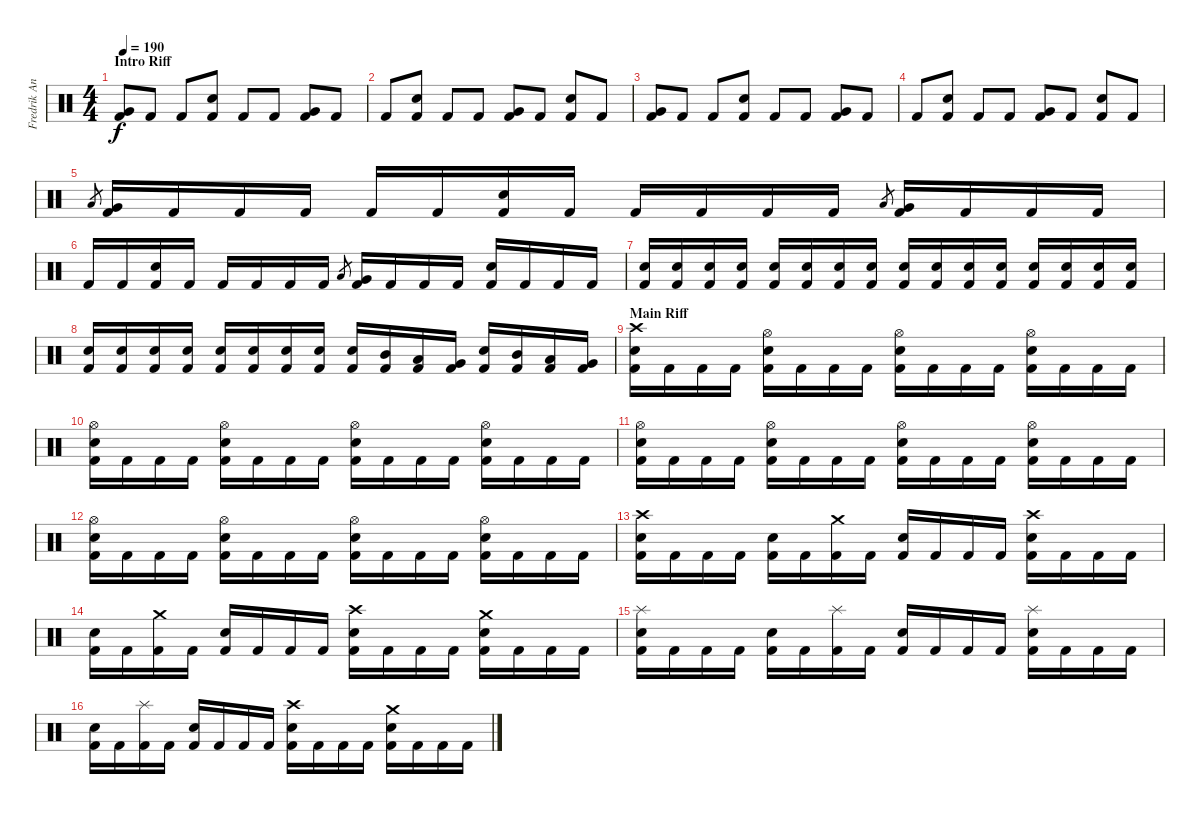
\track ("Fredrik Andersson" "Fredrik An") {instrument percussion}
\staff {score}
\articulation defaults
\ts (4 4)
\section ("" "Intro Riff")
\tempo 190
\clef neutral
\ks c
("Very Low Tom (hit)" "Kick (hit) 2").8{dy f} "Kick (hit) 2".8 "Kick (hit) 2".8 ("Electric Snare (hit)" "Kick (hit) 2").8 "Kick (hit) 2".8 "Kick (hit) 2".8 ("Very Low Tom (hit)" "Kick (hit) 2").8 "Kick (hit) 2".8 |
"Kick (hit) 2".8 ("Electric Snare (hit)" "Kick (hit) 2").8 "Kick (hit) 2".8 "Kick (hit) 2".8 ("Very Low Tom (hit)" "Kick (hit) 2").8 "Kick (hit) 2".8 ("Electric Snare (hit)" "Kick (hit) 2").8 "Kick (hit) 2".8 |
("Very Low Tom (hit)" "Kick (hit) 2").8 "Kick (hit) 2".8 "Kick (hit) 2".8 ("Electric Snare (hit)" "Kick (hit) 2").8 "Kick (hit) 2".8 "Kick (hit) 2".8 ("Very Low Tom (hit)" "Kick (hit) 2").8 "Kick (hit) 2".8 |
"Kick (hit) 2".8 ("Electric Snare (hit)" "Kick (hit) 2").8 "Kick (hit) 2".8 "Kick (hit) 2".8 ("Very Low Tom (hit)" "Kick (hit) 2").8 "Kick (hit) 2".8 ("Electric Snare (hit)" "Kick (hit) 2").8 "Kick (hit) 2".8 |
"Low Tom (hit)".8{gr} ("Very Low Tom (hit)" "Kick (hit) 2").16 "Kick (hit) 2".16 "Kick (hit) 2".16 "Kick (hit) 2".16 "Kick (hit) 2".16 "Kick (hit) 2".16 ("Electric Snare (hit)" "Kick (hit) 2").16 "Kick (hit) 2".16 "Kick (hit) 2".16 "Kick (hit) 2".16 "Kick (hit) 2".16 "Kick (hit) 2".16 "Low Tom (hit)".8{gr} ("Very Low Tom (hit)" "Kick (hit) 2").16 "Kick (hit) 2".16 "Kick (hit) 2".16 "Kick (hit) 2".16 |
"Kick (hit) 2".16 "Kick (hit) 2".16 ("Electric Snare (hit)" "Kick (hit) 2").16 "Kick (hit) 2".16 "Kick (hit) 2".16 "Kick (hit) 2".16 "Kick (hit) 2".16 "Kick (hit) 2".16 "Low Tom (hit)".8{gr} ("Very Low Tom (hit)" "Kick (hit) 2").16 "Kick (hit) 2".16 "Kick (hit) 2".16 "Kick (hit) 2".16 ("Electric Snare (hit)" "Kick (hit) 2").16 "Kick (hit) 2".16 "Kick (hit) 2".16 "Kick (hit) 2".16 |
("Electric Snare (hit)" "Kick (hit) 2").16 ("Electric Snare (hit)" "Kick (hit) 2").16 ("Electric Snare (hit)" "Kick (hit) 2").16 ("Electric Snare (hit)" "Kick (hit) 2").16 ("Electric Snare (hit)" "Kick (hit) 2").16 ("Electric Snare (hit)" "Kick (hit) 2").16 ("Electric Snare (hit)" "Kick (hit) 2").16 ("Electric Snare (hit)" "Kick (hit) 2").16 ("Electric Snare (hit)" "Kick (hit) 2").16 ("Electric Snare (hit)" "Kick (hit) 2").16 ("Electric Snare (hit)" "Kick (hit) 2").16 ("Electric Snare (hit)" "Kick (hit) 2").16 ("Electric Snare (hit)" "Kick (hit) 2").16 ("Electric Snare (hit)" "Kick (hit) 2").16 ("Electric Snare (hit)" "Kick (hit) 2").16 ("Electric Snare (hit)" "Kick (hit) 2").16 |
("Electric Snare (hit)" "Kick (hit) 2").16 ("Electric Snare (hit)" "Kick (hit) 2").16 ("Electric Snare (hit)" "Kick (hit) 2").16 ("Electric Snare (hit)" "Kick (hit) 2").16 ("Electric Snare (hit)" "Kick (hit) 2").16 ("Electric Snare (hit)" "Kick (hit) 2").16 ("Electric Snare (hit)" "Kick (hit) 2").16 ("Electric Snare (hit)" "Kick (hit) 2").16 ("Electric Snare (hit)" "Kick (hit) 2").16 ("Mid Tom (hit)" "Kick (hit) 2").16 ("Low Tom (hit)" "Kick (hit) 2").16 ("Very Low Tom (hit)" "Kick (hit) 2").16 ("Electric Snare (hit)" "Kick (hit) 2").16 ("Mid Tom (hit)" "Kick (hit) 2").16 ("Low Tom (hit)" "Kick (hit) 2").16 ("Very Low Tom (hit)" "Kick (hit) 2").16 |
\section ("" "Main Riff")
("Crash high (hit)" "Electric Snare (hit)" "Kick (hit) 2").16 "Kick (hit) 2".16 "Kick (hit) 2".16 "Kick (hit) 2".16 ("Hi-Hat (open)" "Electric Snare (hit)" "Kick (hit) 2").16 "Kick (hit) 2".16 "Kick (hit) 2".16 "Kick (hit) 2".16 ("Hi-Hat (open)" "Electric Snare (hit)" "Kick (hit) 2").16 "Kick (hit) 2".16 "Kick (hit) 2".16 "Kick (hit) 2".16 ("Hi-Hat (open)" "Electric Snare (hit)" "Kick (hit) 2").16 "Kick (hit) 2".16 "Kick (hit) 2".16 "Kick (hit) 2".16 |
("Hi-Hat (open)" "Electric Snare (hit)" "Kick (hit) 2").16 "Kick (hit) 2".16 "Kick (hit) 2".16 "Kick (hit) 2".16 ("Hi-Hat (open)" "Electric Snare (hit)" "Kick (hit) 2").16 "Kick (hit) 2".16 "Kick (hit) 2".16 "Kick (hit) 2".16 ("Hi-Hat (open)" "Electric Snare (hit)" "Kick (hit) 2").16 "Kick (hit) 2".16 "Kick (hit) 2".16 "Kick (hit) 2".16 ("Hi-Hat (open)" "Electric Snare (hit)" "Kick (hit) 2").16 "Kick (hit) 2".16 "Kick (hit) 2".16 "Kick (hit) 2".16 |
("Hi-Hat (open)" "Electric Snare (hit)" "Kick (hit) 2").16 "Kick (hit) 2".16 "Kick (hit) 2".16 "Kick (hit) 2".16 ("Hi-Hat (open)" "Electric Snare (hit)" "Kick (hit) 2").16 "Kick (hit) 2".16 "Kick (hit) 2".16 "Kick (hit) 2".16 ("Hi-Hat (open)" "Electric Snare (hit)" "Kick (hit) 2").16 "Kick (hit) 2".16 "Kick (hit) 2".16 "Kick (hit) 2".16 ("Hi-Hat (open)" "Electric Snare (hit)" "Kick (hit) 2").16 "Kick (hit) 2".16 "Kick (hit) 2".16 "Kick (hit) 2".16 |
("Hi-Hat (open)" "Electric Snare (hit)" "Kick (hit) 2").16 "Kick (hit) 2".16 "Kick (hit) 2".16 "Kick (hit) 2".16 ("Hi-Hat (open)" "Electric Snare (hit)" "Kick (hit) 2").16 "Kick (hit) 2".16 "Kick (hit) 2".16 "Kick (hit) 2".16 ("Hi-Hat (open)" "Electric Snare (hit)" "Kick (hit) 2").16 "Kick (hit) 2".16 "Kick (hit) 2".16 "Kick (hit) 2".16 ("Hi-Hat (open)" "Electric Snare (hit)" "Kick (hit) 2").16 "Kick (hit) 2".16 "Kick (hit) 2".16 "Kick (hit) 2".16 |
("Crash high (hit)" "Electric Snare (hit)" "Kick (hit) 2").16 "Kick (hit) 2".16 "Kick (hit) 2".16 "Kick (hit) 2".16 ("Electric Snare (hit)" "Kick (hit) 2").16 "Kick (hit) 2".16 ("Crash medium (hit)" "Kick (hit) 2").16 "Kick (hit) 2".16 ("Electric Snare (hit)" "Kick (hit) 2").16 "Kick (hit) 2".16 "Kick (hit) 2".16 "Kick (hit) 2".16 ("Crash high (hit)" "Electric Snare (hit)" "Kick (hit) 2").16 "Kick (hit) 2".16 "Kick (hit) 2".16 "Kick (hit) 2".16 |
("Electric Snare (hit)" "Kick (hit) 2").16 "Kick (hit) 2".16 ("Crash medium (hit)" "Kick (hit) 2").16 "Kick (hit) 2".16 ("Electric Snare (hit)" "Kick (hit) 2").16 "Kick (hit) 2".16 "Kick (hit) 2".16 "Kick (hit) 2".16 ("Crash high (hit)" "Electric Snare (hit)" "Kick (hit) 2").16 "Kick (hit) 2".16 "Kick (hit) 2".16 "Kick (hit) 2".16 ("Crash medium (hit)" "Electric Snare (hit)" "Kick (hit) 2").16 "Kick (hit) 2".16 "Kick (hit) 2".16 "Kick (hit) 2".16 |
("Splash (hit)" "Electric Snare (hit)" "Kick (hit) 2").16 "Kick (hit) 2".16 "Kick (hit) 2".16 "Kick (hit) 2".16 ("Electric Snare (hit)" "Kick (hit) 2").16 "Kick (hit) 2".16 ("Splash (hit)" "Kick (hit) 2").16 "Kick (hit) 2".16 ("Electric Snare (hit)" "Kick (hit) 2").16 "Kick (hit) 2".16 "Kick (hit) 2".16 "Kick (hit) 2".16 ("Splash (hit)" "Electric Snare (hit)" "Kick (hit) 2").16 "Kick (hit) 2".16 "Kick (hit) 2".16 "Kick (hit) 2".16 |
("Electric Snare (hit)" "Kick (hit) 2").16 "Kick (hit) 2".16 ("Splash (hit)" "Kick (hit) 2").16 "Kick (hit) 2".16 ("Electric Snare (hit)" "Kick (hit) 2").16 "Kick (hit) 2".16 "Kick (hit) 2".16 "Kick (hit) 2".16 ("Crash high (hit)" "Electric Snare (hit)" "Kick (hit) 2").16 "Kick (hit) 2".16 "Kick (hit) 2".16 "Kick (hit) 2".16 ("Crash medium (hit)" "Electric Snare (hit)" "Kick (hit) 2").16 "Kick (hit) 2".16 "Kick (hit) 2".16 "Kick (hit) 2".16
